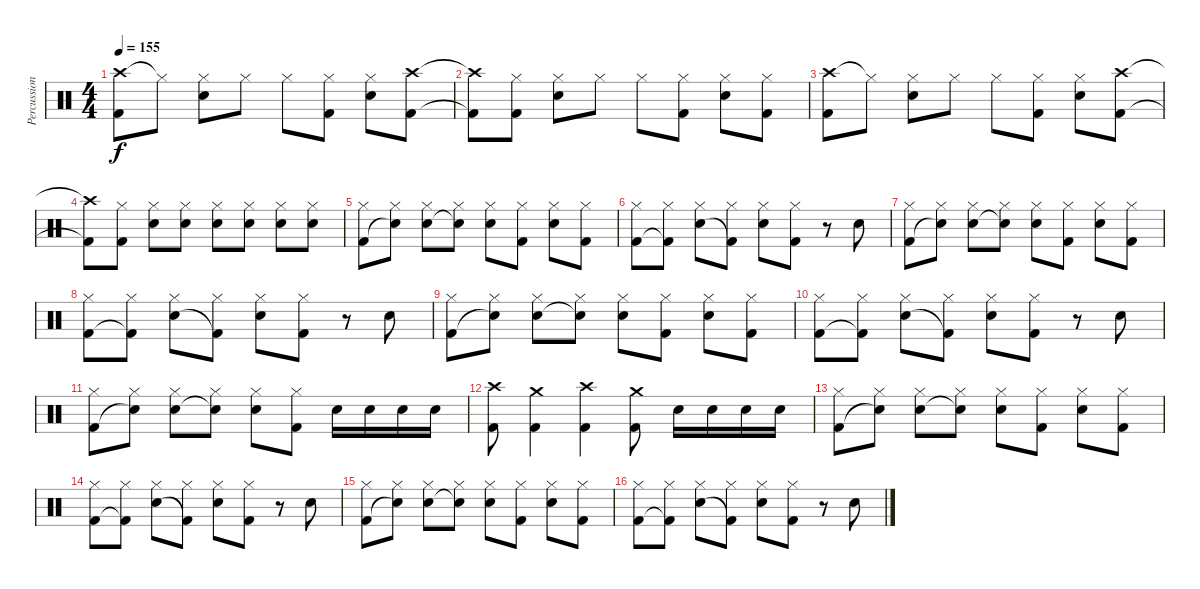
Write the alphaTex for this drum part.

\track ("Percussion" "Percussion") {instrument percussion}
\staff {score}
\articulation defaults
\ts (4 4)
\tempo 155
\clef neutral
\ks c
("Crash high (hit)" "Kick (hit) 2").8{dy f} "Hi-Hat (closed)"{t}.8 ("Hi-Hat (closed)" "Electric Snare (hit)").8 "Hi-Hat (closed)".8 "Hi-Hat (closed)".8 ("Hi-Hat (closed)" "Kick (hit) 2").8 ("Hi-Hat (closed)" "Electric Snare (hit)").8 ("Crash high (hit)" "Kick (hit) 2").8 |
("Crash high (hit)"{t} "Kick (hit) 2"{t}).8 ("Hi-Hat (closed)" "Kick (hit) 2").8 ("Hi-Hat (closed)" "Electric Snare (hit)").8 "Hi-Hat (closed)".8 "Hi-Hat (closed)".8 ("Hi-Hat (closed)" "Kick (hit) 2").8 ("Hi-Hat (closed)" "Electric Snare (hit)").8 ("Hi-Hat (closed)" "Kick (hit) 2").8 |
("Crash high (hit)" "Kick (hit) 2").8 "Hi-Hat (closed)"{t}.8 ("Hi-Hat (closed)" "Electric Snare (hit)").8 "Hi-Hat (closed)".8 "Hi-Hat (closed)".8 ("Hi-Hat (closed)" "Kick (hit) 2").8 ("Hi-Hat (closed)" "Electric Snare (hit)").8 ("Crash high (hit)" "Kick (hit) 2").8 |
("Crash high (hit)"{t} "Kick (hit) 2"{t}).8 ("Hi-Hat (closed)" "Kick (hit) 2").8 ("Hi-Hat (closed)" "Electric Snare (hit)").8{volume 11} ("Hi-Hat (closed)" "Electric Snare (hit)").8{volume 16} ("Hi-Hat (closed)" "Electric Snare (hit)").8 ("Hi-Hat (closed)" "Electric Snare (hit)").8 ("Hi-Hat (closed)" "Electric Snare (hit)").8 ("Hi-Hat (closed)" "Electric Snare (hit)").8 |
("Kick (hit) 2" "Hi-Hat (closed)").8 ("Electric Snare (hit)"{t} "Hi-Hat (closed)").8 ("Electric Snare (hit)" "Hi-Hat (closed)").8 ("Electric Snare (hit)"{t} "Hi-Hat (closed)").8 ("Electric Snare (hit)" "Hi-Hat (closed)").8 ("Kick (hit) 2" "Hi-Hat (closed)").8 ("Electric Snare (hit)" "Hi-Hat (closed)").8 ("Kick (hit) 2" "Hi-Hat (closed)").8 |
("Kick (hit) 2" "Hi-Hat (closed)").8 ("Kick (hit) 2"{t} "Hi-Hat (closed)").8 ("Electric Snare (hit)" "Hi-Hat (closed)").8 ("Kick (hit) 2"{t} "Hi-Hat (closed)").8 ("Electric Snare (hit)" "Hi-Hat (closed)").8 ("Kick (hit) 2" "Hi-Hat (closed)").8 r.8 "Electric Snare (hit)".8 |
("Kick (hit) 2" "Hi-Hat (closed)").8 ("Electric Snare (hit)"{t} "Hi-Hat (closed)").8 ("Electric Snare (hit)" "Hi-Hat (closed)").8 ("Electric Snare (hit)"{t} "Hi-Hat (closed)").8 ("Electric Snare (hit)" "Hi-Hat (closed)").8 ("Kick (hit) 2" "Hi-Hat (closed)").8 ("Electric Snare (hit)" "Hi-Hat (closed)").8 ("Kick (hit) 2" "Hi-Hat (closed)").8 |
("Kick (hit) 2" "Hi-Hat (closed)").8 ("Kick (hit) 2"{t} "Hi-Hat (closed)").8 ("Electric Snare (hit)" "Hi-Hat (closed)").8 ("Kick (hit) 2"{t} "Hi-Hat (closed)").8 ("Electric Snare (hit)" "Hi-Hat (closed)").8 ("Kick (hit) 2" "Hi-Hat (closed)").8 r.8 "Electric Snare (hit)".8 |
("Kick (hit) 2" "Hi-Hat (closed)").8 ("Electric Snare (hit)"{t} "Hi-Hat (closed)").8 ("Electric Snare (hit)" "Hi-Hat (closed)").8 ("Electric Snare (hit)"{t} "Hi-Hat (closed)").8 ("Electric Snare (hit)" "Hi-Hat (closed)").8 ("Kick (hit) 2" "Hi-Hat (closed)").8 ("Electric Snare (hit)" "Hi-Hat (closed)").8 ("Kick (hit) 2" "Hi-Hat (closed)").8 |
("Kick (hit) 2" "Hi-Hat (closed)").8 ("Kick (hit) 2"{t} "Hi-Hat (closed)").8 ("Electric Snare (hit)" "Hi-Hat (closed)").8 ("Kick (hit) 2"{t} "Hi-Hat (closed)").8 ("Electric Snare (hit)" "Hi-Hat (closed)").8 ("Kick (hit) 2" "Hi-Hat (closed)").8 r.8 "Electric Snare (hit)".8 |
("Kick (hit) 2" "Hi-Hat (closed)").8 ("Electric Snare (hit)"{t} "Hi-Hat (closed)").8 ("Electric Snare (hit)" "Hi-Hat (closed)").8 ("Electric Snare (hit)"{t} "Hi-Hat (closed)").8 ("Electric Snare (hit)" "Hi-Hat (closed)").8 ("Kick (hit) 2" "Hi-Hat (closed)").8 "Electric Snare (hit)".16 "Electric Snare (hit)".16 "Electric Snare (hit)".16 "Electric Snare (hit)".16 |
("Crash high (hit)" "Kick (hit) 2").8 ("Crash medium (hit)" "Kick (hit) 2").4 ("Crash high (hit)" "Kick (hit) 2").4 ("Crash medium (hit)" "Kick (hit) 2").8 "Electric Snare (hit)".16 "Electric Snare (hit)".16 "Electric Snare (hit)".16 "Electric Snare (hit)".16 |
("Kick (hit) 2" "Hi-Hat (closed)").8 ("Electric Snare (hit)"{t} "Hi-Hat (closed)").8 ("Electric Snare (hit)" "Hi-Hat (closed)").8 ("Electric Snare (hit)"{t} "Hi-Hat (closed)").8 ("Electric Snare (hit)" "Hi-Hat (closed)").8 ("Kick (hit) 2" "Hi-Hat (closed)").8 ("Electric Snare (hit)" "Hi-Hat (closed)").8 ("Kick (hit) 2" "Hi-Hat (closed)").8 |
("Kick (hit) 2" "Hi-Hat (closed)").8 ("Kick (hit) 2"{t} "Hi-Hat (closed)").8 ("Electric Snare (hit)" "Hi-Hat (closed)").8 ("Kick (hit) 2"{t} "Hi-Hat (closed)").8 ("Electric Snare (hit)" "Hi-Hat (closed)").8 ("Kick (hit) 2" "Hi-Hat (closed)").8 r.8 "Electric Snare (hit)".8 |
("Kick (hit) 2" "Hi-Hat (closed)").8 ("Electric Snare (hit)"{t} "Hi-Hat (closed)").8 ("Electric Snare (hit)" "Hi-Hat (closed)").8 ("Electric Snare (hit)"{t} "Hi-Hat (closed)").8 ("Electric Snare (hit)" "Hi-Hat (closed)").8 ("Kick (hit) 2" "Hi-Hat (closed)").8 ("Electric Snare (hit)" "Hi-Hat (closed)").8 ("Kick (hit) 2" "Hi-Hat (closed)").8 |
("Kick (hit) 2" "Hi-Hat (closed)").8 ("Kick (hit) 2"{t} "Hi-Hat (closed)").8 ("Electric Snare (hit)" "Hi-Hat (closed)").8 ("Kick (hit) 2"{t} "Hi-Hat (closed)").8 ("Electric Snare (hit)" "Hi-Hat (closed)").8 ("Kick (hit) 2" "Hi-Hat (closed)").8 r.8 "Electric Snare (hit)".8
